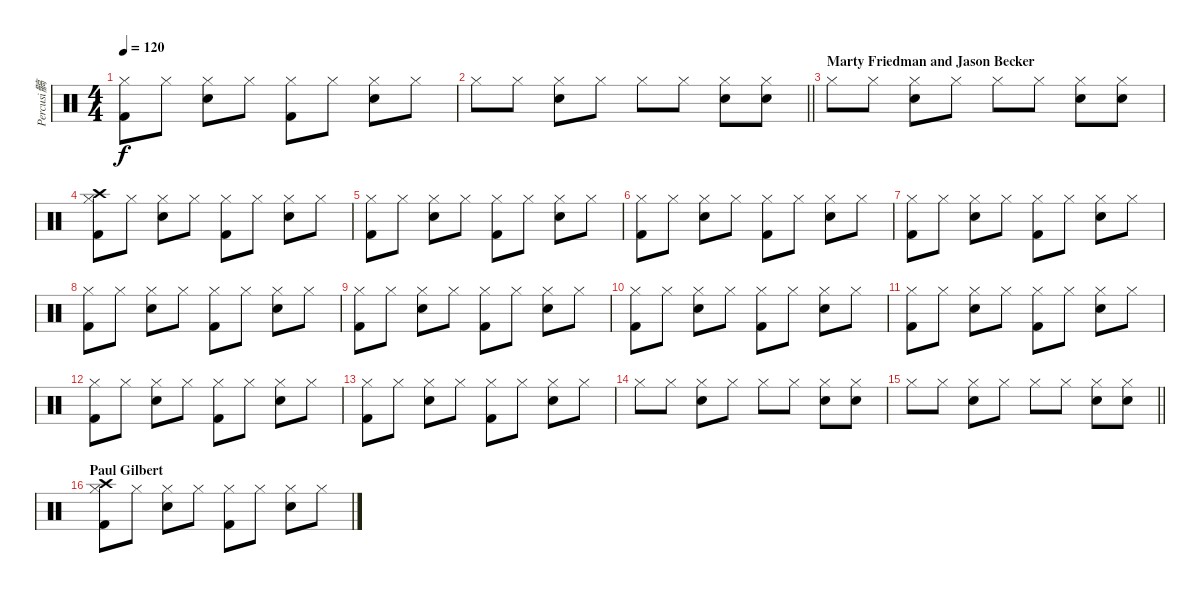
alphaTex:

\track ("Percusi髇" "Percusi髇") {instrument percussion}
\staff {score}
\articulation defaults
\ts (4 4)
\tempo 120
\clef neutral
\ks c
("Kick (hit) 2" "Hi-Hat (closed)").8{dy f} "Hi-Hat (closed)".8 ("Electric Snare (hit)" "Hi-Hat (closed)").8 "Hi-Hat (closed)".8 ("Kick (hit) 2" "Hi-Hat (closed)").8 "Hi-Hat (closed)".8 ("Electric Snare (hit)" "Hi-Hat (closed)").8 "Hi-Hat (closed)".8 |
\barLineRight lightlight "Hi-Hat (closed)".8 "Hi-Hat (closed)".8
("Electric Snare (hit)" "Hi-Hat (closed)").8 "Hi-Hat (closed)".8 "Hi-Hat (closed)".8 "Hi-Hat (closed)".8 ("Electric Snare (hit)" "Hi-Hat (closed)").8 ("Electric Snare (hit)" "Hi-Hat (closed)").8 |
\section ("" "Marty Friedman and Jason Becker")
"Hi-Hat (closed)".8 "Hi-Hat (closed)".8 ("Electric Snare (hit)" "Hi-Hat (closed)").8 "Hi-Hat (closed)".8 "Hi-Hat (closed)".8 "Hi-Hat (closed)".8 ("Electric Snare (hit)" "Hi-Hat (closed)").8 ("Electric Snare (hit)" "Hi-Hat (closed)").8 |
("Kick (hit) 2" "Hi-Hat (closed)" "Crash high (hit)").8 "Hi-Hat (closed)".8 ("Electric Snare (hit)" "Hi-Hat (closed)").8 "Hi-Hat (closed)".8 ("Kick (hit) 2" "Hi-Hat (closed)").8 "Hi-Hat (closed)".8 ("Electric Snare (hit)" "Hi-Hat (closed)").8 "Hi-Hat (closed)".8 |
("Kick (hit) 2" "Hi-Hat (closed)").8 "Hi-Hat (closed)".8 ("Electric Snare (hit)" "Hi-Hat (closed)").8 "Hi-Hat (closed)".8 ("Kick (hit) 2" "Hi-Hat (closed)").8 "Hi-Hat (closed)".8 ("Electric Snare (hit)" "Hi-Hat (closed)").8 "Hi-Hat (closed)".8 |
("Kick (hit) 2" "Hi-Hat (closed)").8 "Hi-Hat (closed)".8 ("Electric Snare (hit)" "Hi-Hat (closed)").8 "Hi-Hat (closed)".8 ("Kick (hit) 2" "Hi-Hat (closed)").8 "Hi-Hat (closed)".8 ("Electric Snare (hit)" "Hi-Hat (closed)").8 "Hi-Hat (closed)".8 |
("Kick (hit) 2" "Hi-Hat (closed)").8 "Hi-Hat (closed)".8 ("Electric Snare (hit)" "Hi-Hat (closed)").8 "Hi-Hat (closed)".8 ("Kick (hit) 2" "Hi-Hat (closed)").8 "Hi-Hat (closed)".8 ("Electric Snare (hit)" "Hi-Hat (closed)").8 "Hi-Hat (closed)".8 |
("Kick (hit) 2" "Hi-Hat (closed)").8 "Hi-Hat (closed)".8 ("Electric Snare (hit)" "Hi-Hat (closed)").8 "Hi-Hat (closed)".8 ("Kick (hit) 2" "Hi-Hat (closed)").8 "Hi-Hat (closed)".8 ("Electric Snare (hit)" "Hi-Hat (closed)").8 "Hi-Hat (closed)".8 |
("Kick (hit) 2" "Hi-Hat (closed)").8 "Hi-Hat (closed)".8 ("Electric Snare (hit)" "Hi-Hat (closed)").8 "Hi-Hat (closed)".8 ("Kick (hit) 2" "Hi-Hat (closed)").8 "Hi-Hat (closed)".8 ("Electric Snare (hit)" "Hi-Hat (closed)").8 "Hi-Hat (closed)".8 |
("Kick (hit) 2" "Hi-Hat (closed)").8 "Hi-Hat (closed)".8 ("Electric Snare (hit)" "Hi-Hat (closed)").8 "Hi-Hat (closed)".8 ("Kick (hit) 2" "Hi-Hat (closed)").8 "Hi-Hat (closed)".8 ("Electric Snare (hit)" "Hi-Hat (closed)").8 "Hi-Hat (closed)".8 |
("Kick (hit) 2" "Hi-Hat (closed)").8 "Hi-Hat (closed)".8 ("Electric Snare (hit)" "Hi-Hat (closed)").8 "Hi-Hat (closed)".8 ("Kick (hit) 2" "Hi-Hat (closed)").8 "Hi-Hat (closed)".8 ("Electric Snare (hit)" "Hi-Hat (closed)").8 "Hi-Hat (closed)".8 |
("Kick (hit) 2" "Hi-Hat (closed)").8 "Hi-Hat (closed)".8 ("Electric Snare (hit)" "Hi-Hat (closed)").8 "Hi-Hat (closed)".8 ("Kick (hit) 2" "Hi-Hat (closed)").8 "Hi-Hat (closed)".8 ("Electric Snare (hit)" "Hi-Hat (closed)").8 "Hi-Hat (closed)".8 |
("Kick (hit) 2" "Hi-Hat (closed)").8 "Hi-Hat (closed)".8 ("Electric Snare (hit)" "Hi-Hat (closed)").8 "Hi-Hat (closed)".8 ("Kick (hit) 2" "Hi-Hat (closed)").8 "Hi-Hat (closed)".8 ("Electric Snare (hit)" "Hi-Hat (closed)").8 "Hi-Hat (closed)".8 |
"Hi-Hat (closed)".8 "Hi-Hat (closed)".8 ("Electric Snare (hit)" "Hi-Hat (closed)").8 "Hi-Hat (closed)".8 "Hi-Hat (closed)".8 "Hi-Hat (closed)".8 ("Electric Snare (hit)" "Hi-Hat (closed)").8 ("Electric Snare (hit)" "Hi-Hat (closed)").8 |
\barLineRight lightlight "Hi-Hat (closed)".8 "Hi-Hat (closed)".8
("Electric Snare (hit)" "Hi-Hat (closed)").8 "Hi-Hat (closed)".8 "Hi-Hat (closed)".8 "Hi-Hat (closed)".8 ("Electric Snare (hit)" "Hi-Hat (closed)").8 ("Electric Snare (hit)" "Hi-Hat (closed)").8 |
\section ("" "Paul Gilbert")
("Kick (hit) 2" "Hi-Hat (closed)" "Crash high (hit)").8 "Hi-Hat (closed)".8 ("Electric Snare (hit)" "Hi-Hat (closed)").8 "Hi-Hat (closed)".8 ("Kick (hit) 2" "Hi-Hat (closed)").8 "Hi-Hat (closed)".8 ("Electric Snare (hit)" "Hi-Hat (closed)").8 "Hi-Hat (closed)".8
